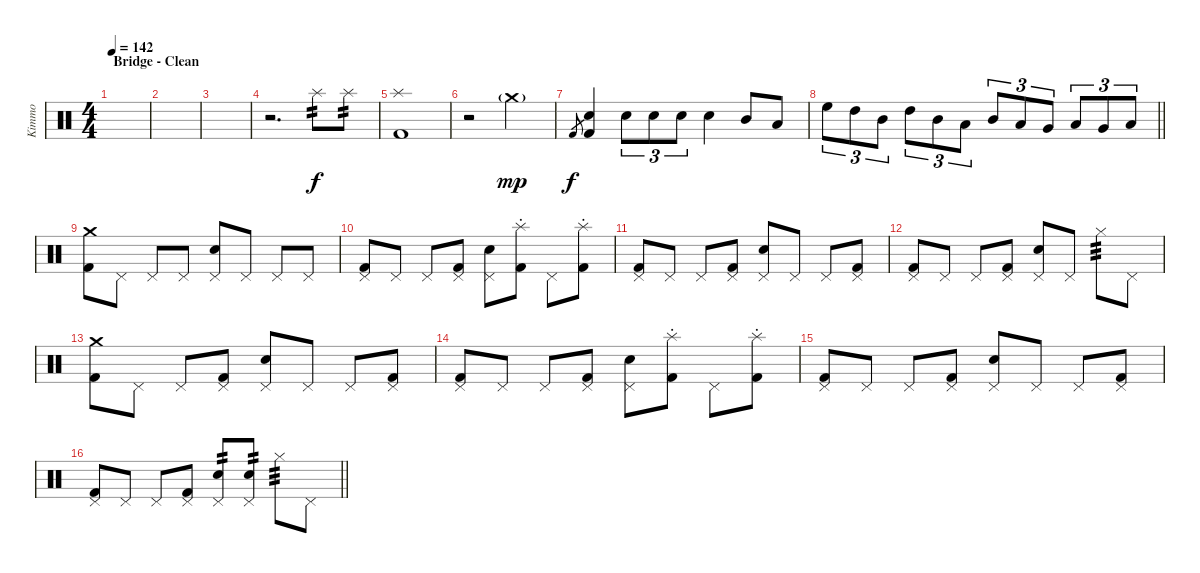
\track ("Kimmo" "Kimmo") {instrument percussion}
\staff {score}
\articulation defaults
\ts (4 4)
\section ("" "Bridge - Clean")
\tempo 142
\clef neutral
\ks c
|
|
|
r.2{d} "Splash (hit)".8{tp 2} "Splash (hit)".8{tp 2} |
("Kick (hit) 2" "Splash (hit)").1 |
r.2 "Crash medium (hit)"{g}.2{dy mp} |
"Kick (hit) 2".8{gr dy f} ("Kick (hit) 2" "Snare (hit) 2").4 "Snare (hit) 2".8{tu (3 2)} "Snare (hit) 2".8{tu (3 2)} "Snare (hit) 2".8{tu (3 2)} "Snare (hit) 2".4 "Mid Tom (hit)".8 "Low Tom (hit)".8 |
\barLineRight lightlight "High Floor Tom (hit)".8{tu (3 2)} "High Tom (hit)".8{tu (3 2)} "Mid Tom (hit)".8{tu (3 2)} "High Tom (hit)".8{tu (3 2)} "Mid Tom (hit)".8{tu (3 2)} "Low Tom (hit)".8{tu (3 2)} "Mid Tom (hit)".8{tu (3 2)} "Low Tom (hit)".8{tu (3 2)} "Very Low Tom (hit)".8{tu (3 2)} "Low Tom (hit)".8{tu (3 2)} "Very Low Tom (hit)".8{tu (3 2)} "Low Floor Tom (hit)".8{tu (3 2)}
|
\section ("" "")
("Kick (hit) 2" "Crash medium (hit)").8 "Pedal Hi-Hat (hit)".8 "Pedal Hi-Hat (hit)".8 "Pedal Hi-Hat (hit)".8 ("Snare (hit) 2" "Pedal Hi-Hat (hit)").8 "Pedal Hi-Hat (hit)".8 "Pedal Hi-Hat (hit)".8 "Pedal Hi-Hat (hit)".8 |
("Kick (hit) 2" "Pedal Hi-Hat (hit)").8 "Pedal Hi-Hat (hit)".8 "Pedal Hi-Hat (hit)".8 ("Kick (hit) 2" "Pedal Hi-Hat (hit)").8 ("Snare (hit) 2" "Pedal Hi-Hat (hit)").8 ("Kick (hit) 2" "Splash (hit)"{st}).8 "Pedal Hi-Hat (hit)".8 ("Kick (hit) 2" "Splash (hit)"{st}).8 |
("Kick (hit) 2" "Pedal Hi-Hat (hit)").8 "Pedal Hi-Hat (hit)".8 "Pedal Hi-Hat (hit)".8 ("Kick (hit) 2" "Pedal Hi-Hat (hit)").8 ("Snare (hit) 2" "Pedal Hi-Hat (hit)").8 "Pedal Hi-Hat (hit)".8 "Pedal Hi-Hat (hit)".8 ("Kick (hit) 2" "Pedal Hi-Hat (hit)").8 |
("Kick (hit) 2" "Pedal Hi-Hat (hit)").8 "Pedal Hi-Hat (hit)".8 "Pedal Hi-Hat (hit)".8 ("Kick (hit) 2" "Pedal Hi-Hat (hit)").8 ("Snare (hit) 2" "Pedal Hi-Hat (hit)").8 "Pedal Hi-Hat (hit)".8 "Hi-Hat (closed)".8{tp 3} "Pedal Hi-Hat (hit)".8 |
("Kick (hit) 2" "Crash medium (hit)").8 "Pedal Hi-Hat (hit)".8 "Pedal Hi-Hat (hit)".8 ("Kick (hit) 2" "Pedal Hi-Hat (hit)").8 ("Snare (hit) 2" "Pedal Hi-Hat (hit)").8 "Pedal Hi-Hat (hit)".8 "Pedal Hi-Hat (hit)".8 ("Kick (hit) 2" "Pedal Hi-Hat (hit)").8 |
("Kick (hit) 2" "Pedal Hi-Hat (hit)").8 "Pedal Hi-Hat (hit)".8 "Pedal Hi-Hat (hit)".8 ("Kick (hit) 2" "Pedal Hi-Hat (hit)").8 ("Snare (hit) 2" "Pedal Hi-Hat (hit)").8 ("Kick (hit) 2" "Splash (hit)"{st}).8 "Pedal Hi-Hat (hit)".8 ("Kick (hit) 2" "Splash (hit)"{st}).8 |
("Kick (hit) 2" "Pedal Hi-Hat (hit)").8 "Pedal Hi-Hat (hit)".8 "Pedal Hi-Hat (hit)".8 ("Kick (hit) 2" "Pedal Hi-Hat (hit)").8 ("Snare (hit) 2" "Pedal Hi-Hat (hit)").8 "Pedal Hi-Hat (hit)".8 "Pedal Hi-Hat (hit)".8 ("Kick (hit) 2" "Pedal Hi-Hat (hit)").8 |
\barLineRight lightlight
("Kick (hit) 2" "Pedal Hi-Hat (hit)").8 "Pedal Hi-Hat (hit)".8 "Pedal Hi-Hat (hit)".8 ("Kick (hit) 2" "Pedal Hi-Hat (hit)").8 ("Snare (hit) 2" "Pedal Hi-Hat (hit)").8{tp 2} ("Snare (hit) 2" "Pedal Hi-Hat (hit)").8{tp 2} "Hi-Hat (closed)".8{tp 3} "Pedal Hi-Hat (hit)".8
